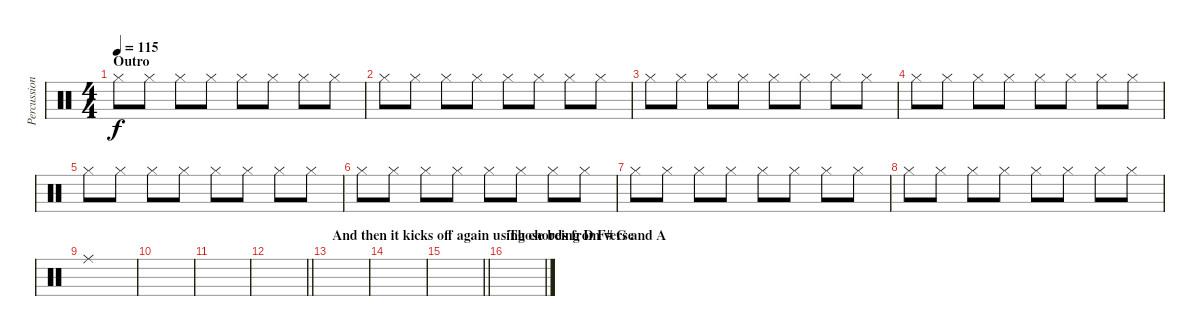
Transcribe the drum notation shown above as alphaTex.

\track ("Percussion" "Percussion") {instrument percussion}
\staff {score}
\articulation defaults
\ts (4 4)
\section ("" "Outro")
\tempo 115
\clef neutral
\ks c "Hi-Hat (closed)".8{dy f} "Hi-Hat (closed)".8 "Hi-Hat (closed)".8 "Hi-Hat (closed)".8 "Hi-Hat (closed)".8 "Hi-Hat (closed)".8 "Hi-Hat (closed)".8 "Hi-Hat (closed)".8
|
"Hi-Hat (closed)".8 "Hi-Hat (closed)".8 "Hi-Hat (closed)".8 "Hi-Hat (closed)".8 "Hi-Hat (closed)".8 "Hi-Hat (closed)".8 "Hi-Hat (closed)".8 "Hi-Hat (closed)".8 |
"Hi-Hat (closed)".8 "Hi-Hat (closed)".8 "Hi-Hat (closed)".8 "Hi-Hat (closed)".8 "Hi-Hat (closed)".8 "Hi-Hat (closed)".8 "Hi-Hat (closed)".8 "Hi-Hat (closed)".8 |
"Hi-Hat (closed)".8 "Hi-Hat (closed)".8 "Hi-Hat (closed)".8 "Hi-Hat (closed)".8 "Hi-Hat (closed)".8 "Hi-Hat (closed)".8 "Hi-Hat (closed)".8 "Hi-Hat (closed)".8 |
"Hi-Hat (closed)".8 "Hi-Hat (closed)".8 "Hi-Hat (closed)".8 "Hi-Hat (closed)".8 "Hi-Hat (closed)".8 "Hi-Hat (closed)".8 "Hi-Hat (closed)".8 "Hi-Hat (closed)".8 |
"Hi-Hat (closed)".8 "Hi-Hat (closed)".8 "Hi-Hat (closed)".8 "Hi-Hat (closed)".8 "Hi-Hat (closed)".8 "Hi-Hat (closed)".8 "Hi-Hat (closed)".8 "Hi-Hat (closed)".8 |
"Hi-Hat (closed)".8 "Hi-Hat (closed)".8 "Hi-Hat (closed)".8 "Hi-Hat (closed)".8 "Hi-Hat (closed)".8 "Hi-Hat (closed)".8 "Hi-Hat (closed)".8 "Hi-Hat (closed)".8 |
"Hi-Hat (closed)".8 "Hi-Hat (closed)".8 "Hi-Hat (closed)".8 "Hi-Hat (closed)".8 "Hi-Hat (closed)".8 "Hi-Hat (closed)".8 "Hi-Hat (closed)".8 "Hi-Hat (closed)".8 |
"Ride (middle)".1 |
|
|
\barLineRight lightlight
|
\section ("" "And then it kicks off again using chords from verse")
|
|
\barLineRight lightlight
|
\section ("" "Those being D F# G and A")
